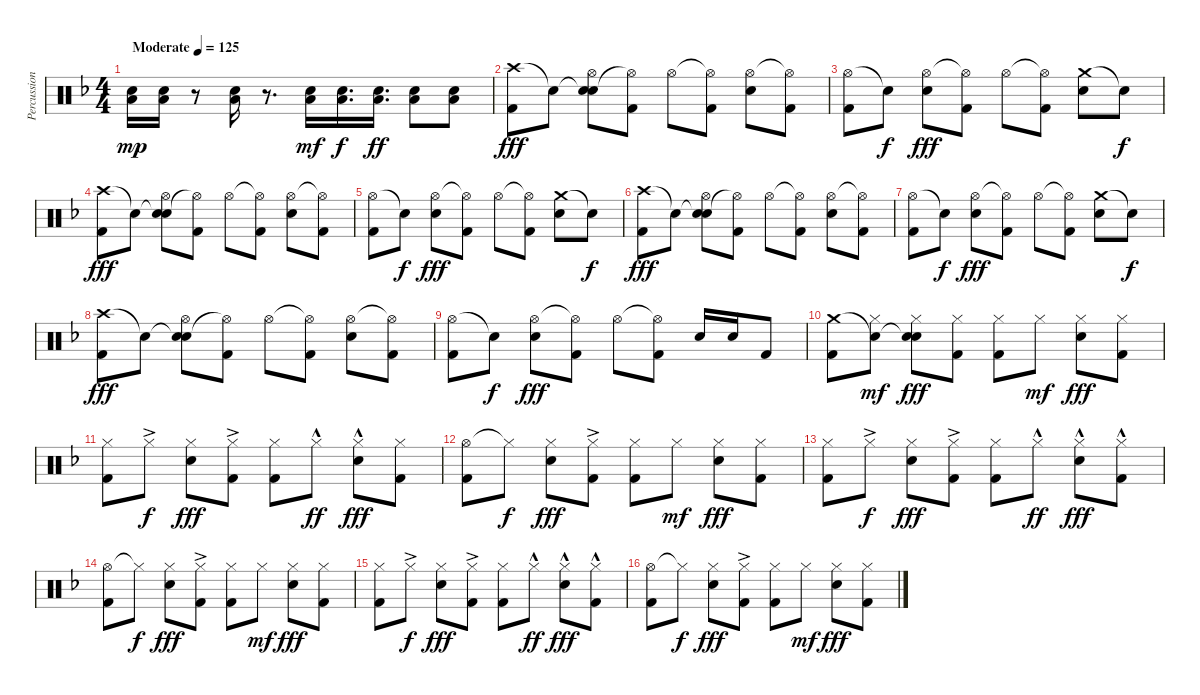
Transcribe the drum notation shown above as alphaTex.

\track ("Percussion" "Percussion") {instrument percussion}
\staff {score}
\articulation defaults
\ts (4 4)
\tempo (125 "Moderate")
\clef neutral
\ks dminor
("Electric Snare (hit)" "Low Floor Tom (hit)").16{dy mp} ("Electric Snare (hit)" "Low Floor Tom (hit)").16 r.8 ("Electric Snare (hit)" "Low Floor Tom (hit)").16 r.8{d} ("Electric Snare (hit)" "Low Floor Tom (hit)").16{dy mf} ("Electric Snare (hit)" "Low Floor Tom (hit)").16{d dy f} ("Electric Snare (hit)" "Low Floor Tom (hit)").16{d dy ff} ("Electric Snare (hit)" "Low Floor Tom (hit)").8 ("Electric Snare (hit)" "Low Floor Tom (hit)").8 |
("Crash high (hit)" "Kick (hit) 2").8{dy fff} "Snare (hit)"{t}.8 ("Snare (hit)"{t} "Hi-Hat (open)" "Electric Snare (hit)").8 ("Hi-Hat (open)"{t} "Kick (hit) 2").8 "Hi-Hat (open)".8 ("Hi-Hat (open)"{t} "Kick (hit) 2").8 ("Hi-Hat (open)" "Electric Snare (hit)").8 ("Hi-Hat (open)"{t} "Kick (hit) 2").8 |
("Hi-Hat (open)" "Kick (hit) 2").8 "Snare (hit)"{t}.8{dy f} ("Hi-Hat (open)" "Electric Snare (hit)").8{dy fff} ("Hi-Hat (open)"{t} "Kick (hit) 2").8 "Hi-Hat (open)".8 ("Hi-Hat (open)"{t} "Kick (hit) 2").8 ("Crash medium (hit)" "Electric Snare (hit)").8 "Snare (hit)"{t}.8{dy f} |
("Crash high (hit)" "Kick (hit) 2").8{dy fff} "Snare (hit)"{t}.8 ("Snare (hit)"{t} "Hi-Hat (open)" "Electric Snare (hit)").8 ("Hi-Hat (open)"{t} "Kick (hit) 2").8 "Hi-Hat (open)".8 ("Hi-Hat (open)"{t} "Kick (hit) 2").8 ("Hi-Hat (open)" "Electric Snare (hit)").8 ("Hi-Hat (open)"{t} "Kick (hit) 2").8 |
("Hi-Hat (open)" "Kick (hit) 2").8 "Snare (hit)"{t}.8{dy f} ("Hi-Hat (open)" "Electric Snare (hit)").8{dy fff} ("Hi-Hat (open)"{t} "Kick (hit) 2").8 "Hi-Hat (open)".8 ("Hi-Hat (open)"{t} "Kick (hit) 2").8 ("Crash medium (hit)" "Electric Snare (hit)").8 "Snare (hit)"{t}.8{dy f} |
("Crash high (hit)" "Kick (hit) 2").8{dy fff} "Snare (hit)"{t}.8 ("Snare (hit)"{t} "Hi-Hat (open)" "Electric Snare (hit)").8 ("Hi-Hat (open)"{t} "Kick (hit) 2").8 "Hi-Hat (open)".8 ("Hi-Hat (open)"{t} "Kick (hit) 2").8 ("Hi-Hat (open)" "Electric Snare (hit)").8 ("Hi-Hat (open)"{t} "Kick (hit) 2").8 |
("Hi-Hat (open)" "Kick (hit) 2").8 "Snare (hit)"{t}.8{dy f} ("Hi-Hat (open)" "Electric Snare (hit)").8{dy fff} ("Hi-Hat (open)"{t} "Kick (hit) 2").8 "Hi-Hat (open)".8 ("Hi-Hat (open)"{t} "Kick (hit) 2").8 ("Crash medium (hit)" "Electric Snare (hit)").8 "Snare (hit)"{t}.8{dy f} |
("Crash high (hit)" "Kick (hit) 2").8{dy fff} "Snare (hit)"{t}.8 ("Snare (hit)"{t} "Hi-Hat (open)" "Electric Snare (hit)").8 ("Hi-Hat (open)"{t} "Kick (hit) 2").8 "Hi-Hat (open)".8 ("Hi-Hat (open)"{t} "Kick (hit) 2").8 ("Hi-Hat (open)" "Electric Snare (hit)").8 ("Hi-Hat (open)"{t} "Kick (hit) 2").8 |
("Hi-Hat (open)" "Kick (hit) 2").8 "Snare (hit)"{t}.8{dy f} ("Hi-Hat (open)" "Electric Snare (hit)").8{dy fff} ("Hi-Hat (open)"{t} "Kick (hit) 2").8 "Hi-Hat (open)".8 ("Hi-Hat (open)"{t} "Kick (hit) 2").8 "Electric Snare (hit)".16 "Electric Snare (hit)".16 "Kick (hit) 2".8 |
("Crash medium (hit)" "Kick (hit) 2").8 ("Snare (hit)"{t} "Hi-Hat (closed)").8{dy mf} ("Snare (hit)"{t} "Hi-Hat (closed)" "Electric Snare (hit)").8{dy fff} ("Hi-Hat (closed)" "Kick (hit) 2").8 ("Hi-Hat (closed)" "Kick (hit) 2").8 "Hi-Hat (closed)".8{dy mf} ("Hi-Hat (closed)" "Electric Snare (hit)").8{dy fff} ("Hi-Hat (closed)" "Kick (hit) 2").8 |
("Hi-Hat (closed)" "Kick (hit) 2").8 "Hi-Hat (closed)"{ac}.8{dy f} ("Hi-Hat (closed)" "Electric Snare (hit)").8{dy fff} ("Hi-Hat (closed)"{ac} "Kick (hit) 2").8 ("Hi-Hat (closed)" "Kick (hit) 2").8 "Hi-Hat (closed)"{hac}.8{dy ff} ("Hi-Hat (closed)"{hac} "Electric Snare (hit)").8{dy fff} ("Hi-Hat (closed)" "Kick (hit) 2").8 |
("Hi-Hat (open)" "Kick (hit) 2").8 "Hi-Hat (closed)"{t}.8{dy f} ("Hi-Hat (closed)" "Electric Snare (hit)").8{dy fff} ("Hi-Hat (closed)"{ac} "Kick (hit) 2").8 ("Hi-Hat (closed)" "Kick (hit) 2").8 "Hi-Hat (closed)".8{dy mf} ("Hi-Hat (closed)" "Electric Snare (hit)").8{dy fff} ("Hi-Hat (closed)" "Kick (hit) 2").8 |
("Hi-Hat (closed)" "Kick (hit) 2").8 "Hi-Hat (closed)"{ac}.8{dy f} ("Hi-Hat (closed)" "Electric Snare (hit)").8{dy fff} ("Hi-Hat (closed)"{ac} "Kick (hit) 2").8 ("Hi-Hat (closed)" "Kick (hit) 2").8 "Hi-Hat (closed)"{hac}.8{dy ff} ("Hi-Hat (closed)"{hac} "Electric Snare (hit)").8{dy fff} ("Hi-Hat (closed)"{hac} "Kick (hit) 2").8 |
("Hi-Hat (open)" "Kick (hit) 2").8 "Hi-Hat (closed)"{t}.8{dy f} ("Hi-Hat (closed)" "Electric Snare (hit)").8{dy fff} ("Hi-Hat (closed)"{ac} "Kick (hit) 2").8 ("Hi-Hat (closed)" "Kick (hit) 2").8 "Hi-Hat (closed)".8{dy mf} ("Hi-Hat (closed)" "Electric Snare (hit)").8{dy fff} ("Hi-Hat (closed)" "Kick (hit) 2").8 |
("Hi-Hat (closed)" "Kick (hit) 2").8 "Hi-Hat (closed)"{ac}.8{dy f} ("Hi-Hat (closed)" "Electric Snare (hit)").8{dy fff} ("Hi-Hat (closed)"{ac} "Kick (hit) 2").8 ("Hi-Hat (closed)" "Kick (hit) 2").8 "Hi-Hat (closed)"{hac}.8{dy ff} ("Hi-Hat (closed)"{hac} "Electric Snare (hit)").8{dy fff} ("Hi-Hat (closed)"{hac} "Kick (hit) 2").8 |
("Hi-Hat (open)" "Kick (hit) 2").8 "Hi-Hat (closed)"{t}.8{dy f} ("Hi-Hat (closed)" "Electric Snare (hit)").8{dy fff} ("Hi-Hat (closed)"{ac} "Kick (hit) 2").8 ("Hi-Hat (closed)" "Kick (hit) 2").8 "Hi-Hat (closed)".8{dy mf} ("Hi-Hat (closed)" "Electric Snare (hit)").8{dy fff} ("Hi-Hat (closed)" "Kick (hit) 2").8
